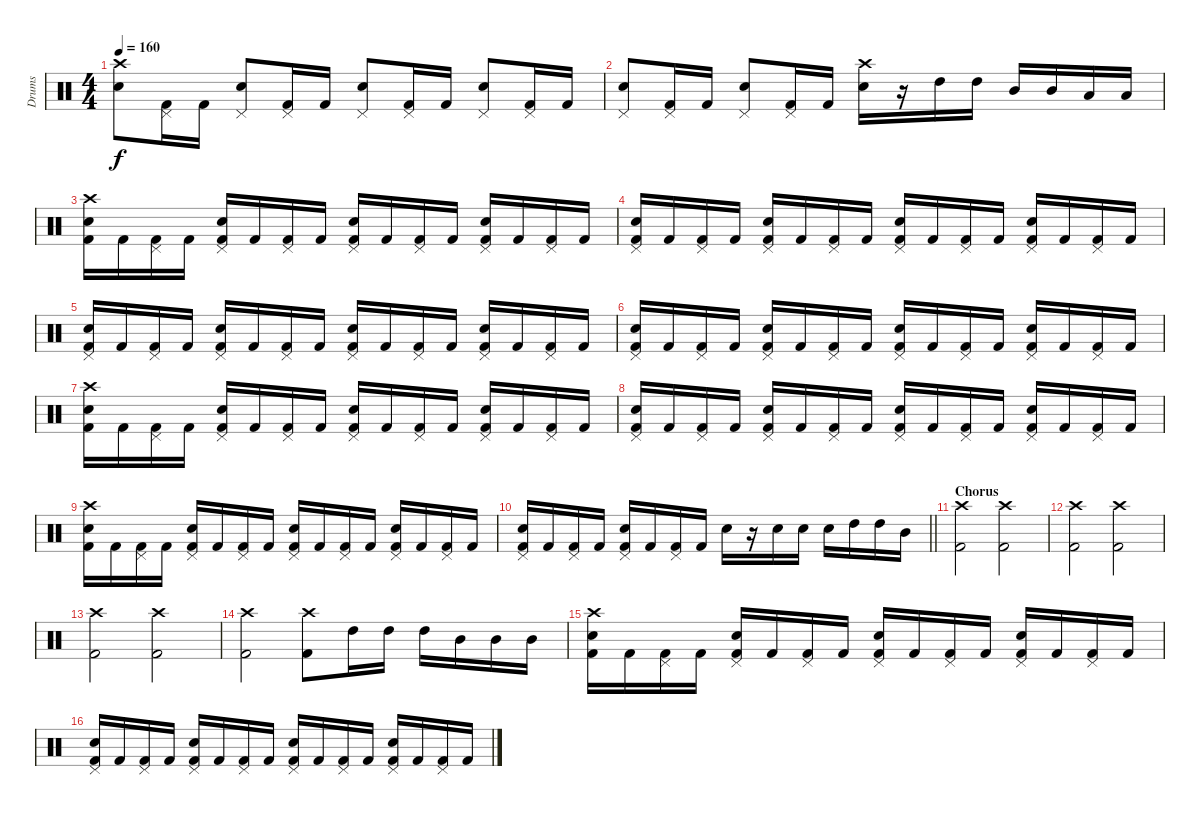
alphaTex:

\track ("Drums" "Drums") {instrument percussion}
\staff {score}
\articulation defaults
\ts (4 4)
\tempo 160
\clef neutral
\ks c
("Crash high (hit)" "Snare (hit) 2").8{dy f} ("Pedal Hi-Hat (hit)" "Kick (hit) 2").16 "Kick (hit) 2".16 ("Pedal Hi-Hat (hit)" "Snare (hit) 2").8 ("Pedal Hi-Hat (hit)" "Kick (hit) 2").16 "Kick (hit) 2".16 ("Pedal Hi-Hat (hit)" "Snare (hit) 2").8 ("Pedal Hi-Hat (hit)" "Kick (hit) 2").16 "Kick (hit) 2".16 ("Pedal Hi-Hat (hit)" "Snare (hit) 2").8 ("Pedal Hi-Hat (hit)" "Kick (hit) 2").16 "Kick (hit) 2".16 |
("Pedal Hi-Hat (hit)" "Snare (hit) 2").8 ("Pedal Hi-Hat (hit)" "Kick (hit) 2").16 "Kick (hit) 2".16 ("Pedal Hi-Hat (hit)" "Snare (hit) 2").8 ("Pedal Hi-Hat (hit)" "Kick (hit) 2").16 "Kick (hit) 2".16 ("Crash high (hit)" "Snare (hit) 2").16 r.16 "High Tom (hit)".16 "High Tom (hit)".16 "Mid Tom (hit)".16 "Mid Tom (hit)".16 "Low Tom (hit)".16 "Low Tom (hit)".16 |
("Crash high (hit)" "Snare (hit) 2" "Kick (hit) 2").16 "Kick (hit) 2".16 ("Pedal Hi-Hat (hit)" "Kick (hit) 2").16 "Kick (hit) 2".16 ("Pedal Hi-Hat (hit)" "Snare (hit) 2" "Kick (hit) 2").16 "Kick (hit) 2".16 ("Pedal Hi-Hat (hit)" "Kick (hit) 2").16 "Kick (hit) 2".16 ("Pedal Hi-Hat (hit)" "Snare (hit) 2" "Kick (hit) 2").16 "Kick (hit) 2".16 ("Pedal Hi-Hat (hit)" "Kick (hit) 2").16 "Kick (hit) 2".16 ("Pedal Hi-Hat (hit)" "Snare (hit) 2" "Kick (hit) 2").16 "Kick (hit) 2".16 ("Pedal Hi-Hat (hit)" "Kick (hit) 2").16 "Kick (hit) 2".16 |
("Pedal Hi-Hat (hit)" "Snare (hit) 2" "Kick (hit) 2").16 "Kick (hit) 2".16 ("Pedal Hi-Hat (hit)" "Kick (hit) 2").16 "Kick (hit) 2".16 ("Pedal Hi-Hat (hit)" "Snare (hit) 2" "Kick (hit) 2").16 "Kick (hit) 2".16 ("Pedal Hi-Hat (hit)" "Kick (hit) 2").16 "Kick (hit) 2".16 ("Pedal Hi-Hat (hit)" "Snare (hit) 2" "Kick (hit) 2").16 "Kick (hit) 2".16 ("Pedal Hi-Hat (hit)" "Kick (hit) 2").16 "Kick (hit) 2".16 ("Pedal Hi-Hat (hit)" "Snare (hit) 2" "Kick (hit) 2").16 "Kick (hit) 2".16 ("Pedal Hi-Hat (hit)" "Kick (hit) 2").16 "Kick (hit) 2".16 |
("Pedal Hi-Hat (hit)" "Snare (hit) 2" "Kick (hit) 2").16 "Kick (hit) 2".16 ("Pedal Hi-Hat (hit)" "Kick (hit) 2").16 "Kick (hit) 2".16 ("Pedal Hi-Hat (hit)" "Snare (hit) 2" "Kick (hit) 2").16 "Kick (hit) 2".16 ("Pedal Hi-Hat (hit)" "Kick (hit) 2").16 "Kick (hit) 2".16 ("Pedal Hi-Hat (hit)" "Snare (hit) 2" "Kick (hit) 2").16 "Kick (hit) 2".16 ("Pedal Hi-Hat (hit)" "Kick (hit) 2").16 "Kick (hit) 2".16 ("Pedal Hi-Hat (hit)" "Snare (hit) 2" "Kick (hit) 2").16 "Kick (hit) 2".16 ("Pedal Hi-Hat (hit)" "Kick (hit) 2").16 "Kick (hit) 2".16 |
("Pedal Hi-Hat (hit)" "Snare (hit) 2" "Kick (hit) 2").16 "Kick (hit) 2".16 ("Pedal Hi-Hat (hit)" "Kick (hit) 2").16 "Kick (hit) 2".16 ("Pedal Hi-Hat (hit)" "Snare (hit) 2" "Kick (hit) 2").16 "Kick (hit) 2".16 ("Pedal Hi-Hat (hit)" "Kick (hit) 2").16 "Kick (hit) 2".16 ("Pedal Hi-Hat (hit)" "Snare (hit) 2" "Kick (hit) 2").16 "Kick (hit) 2".16 ("Pedal Hi-Hat (hit)" "Kick (hit) 2").16 "Kick (hit) 2".16 ("Pedal Hi-Hat (hit)" "Snare (hit) 2" "Kick (hit) 2").16 "Kick (hit) 2".16 ("Pedal Hi-Hat (hit)" "Kick (hit) 2").16 "Kick (hit) 2".16 |
("Crash high (hit)" "Snare (hit) 2" "Kick (hit) 2").16 "Kick (hit) 2".16 ("Pedal Hi-Hat (hit)" "Kick (hit) 2").16 "Kick (hit) 2".16 ("Pedal Hi-Hat (hit)" "Snare (hit) 2" "Kick (hit) 2").16 "Kick (hit) 2".16 ("Pedal Hi-Hat (hit)" "Kick (hit) 2").16 "Kick (hit) 2".16 ("Pedal Hi-Hat (hit)" "Snare (hit) 2" "Kick (hit) 2").16 "Kick (hit) 2".16 ("Pedal Hi-Hat (hit)" "Kick (hit) 2").16 "Kick (hit) 2".16 ("Pedal Hi-Hat (hit)" "Snare (hit) 2" "Kick (hit) 2").16 "Kick (hit) 2".16 ("Pedal Hi-Hat (hit)" "Kick (hit) 2").16 "Kick (hit) 2".16 |
("Pedal Hi-Hat (hit)" "Snare (hit) 2" "Kick (hit) 2").16 "Kick (hit) 2".16 ("Pedal Hi-Hat (hit)" "Kick (hit) 2").16 "Kick (hit) 2".16 ("Pedal Hi-Hat (hit)" "Snare (hit) 2" "Kick (hit) 2").16 "Kick (hit) 2".16 ("Pedal Hi-Hat (hit)" "Kick (hit) 2").16 "Kick (hit) 2".16 ("Pedal Hi-Hat (hit)" "Snare (hit) 2" "Kick (hit) 2").16 "Kick (hit) 2".16 ("Pedal Hi-Hat (hit)" "Kick (hit) 2").16 "Kick (hit) 2".16 ("Pedal Hi-Hat (hit)" "Snare (hit) 2" "Kick (hit) 2").16 "Kick (hit) 2".16 ("Pedal Hi-Hat (hit)" "Kick (hit) 2").16 "Kick (hit) 2".16 |
("Crash high (hit)" "Snare (hit) 2" "Kick (hit) 2").16 "Kick (hit) 2".16 ("Pedal Hi-Hat (hit)" "Kick (hit) 2").16 "Kick (hit) 2".16 ("Pedal Hi-Hat (hit)" "Snare (hit) 2" "Kick (hit) 2").16 "Kick (hit) 2".16 ("Pedal Hi-Hat (hit)" "Kick (hit) 2").16 "Kick (hit) 2".16 ("Pedal Hi-Hat (hit)" "Snare (hit) 2" "Kick (hit) 2").16 "Kick (hit) 2".16 ("Pedal Hi-Hat (hit)" "Kick (hit) 2").16 "Kick (hit) 2".16 ("Pedal Hi-Hat (hit)" "Snare (hit) 2" "Kick (hit) 2").16 "Kick (hit) 2".16 ("Pedal Hi-Hat (hit)" "Kick (hit) 2").16 "Kick (hit) 2".16 |
\barLineRight lightlight
("Pedal Hi-Hat (hit)" "Snare (hit) 2" "Kick (hit) 2").16 "Kick (hit) 2".16 ("Pedal Hi-Hat (hit)" "Kick (hit) 2").16 "Kick (hit) 2".16 ("Pedal Hi-Hat (hit)" "Snare (hit) 2" "Kick (hit) 2").16 "Kick (hit) 2".16 ("Pedal Hi-Hat (hit)" "Kick (hit) 2").16 "Kick (hit) 2".16 "Snare (hit) 2".16 r.16 "Snare (hit) 2".16 "Snare (hit) 2".16 "Snare (hit) 2".16 "High Tom (hit)".16 "High Tom (hit)".16 "Mid Tom (hit)".16 |
\section ("" "Chorus")
("Crash high (hit)" "Kick (hit) 2").2 ("Crash high (hit)" "Kick (hit) 2").2 |
("Crash high (hit)" "Kick (hit) 2").2 ("Crash high (hit)" "Kick (hit) 2").2 |
("Crash high (hit)" "Kick (hit) 2").2 ("Crash high (hit)" "Kick (hit) 2").2 |
("Crash high (hit)" "Kick (hit) 2").2 ("Crash high (hit)" "Kick (hit) 2").8 "High Tom (hit)".16 "High Tom (hit)".16 "High Tom (hit)".16 "Mid Tom (hit)".16 "Mid Tom (hit)".16 "Mid Tom (hit)".16 |
("Crash high (hit)" "Snare (hit) 2" "Kick (hit) 2").16 "Kick (hit) 2".16 ("Pedal Hi-Hat (hit)" "Kick (hit) 2").16 "Kick (hit) 2".16 ("Pedal Hi-Hat (hit)" "Snare (hit) 2" "Kick (hit) 2").16 "Kick (hit) 2".16 ("Pedal Hi-Hat (hit)" "Kick (hit) 2").16 "Kick (hit) 2".16 ("Pedal Hi-Hat (hit)" "Snare (hit) 2" "Kick (hit) 2").16 "Kick (hit) 2".16 ("Pedal Hi-Hat (hit)" "Kick (hit) 2").16 "Kick (hit) 2".16 ("Pedal Hi-Hat (hit)" "Snare (hit) 2" "Kick (hit) 2").16 "Kick (hit) 2".16 ("Pedal Hi-Hat (hit)" "Kick (hit) 2").16 "Kick (hit) 2".16 |
("Pedal Hi-Hat (hit)" "Snare (hit) 2" "Kick (hit) 2").16 "Kick (hit) 2".16 ("Pedal Hi-Hat (hit)" "Kick (hit) 2").16 "Kick (hit) 2".16 ("Pedal Hi-Hat (hit)" "Snare (hit) 2" "Kick (hit) 2").16 "Kick (hit) 2".16 ("Pedal Hi-Hat (hit)" "Kick (hit) 2").16 "Kick (hit) 2".16 ("Pedal Hi-Hat (hit)" "Snare (hit) 2" "Kick (hit) 2").16 "Kick (hit) 2".16 ("Pedal Hi-Hat (hit)" "Kick (hit) 2").16 "Kick (hit) 2".16 ("Pedal Hi-Hat (hit)" "Snare (hit) 2" "Kick (hit) 2").16 "Kick (hit) 2".16 ("Pedal Hi-Hat (hit)" "Kick (hit) 2").16 "Kick (hit) 2".16
